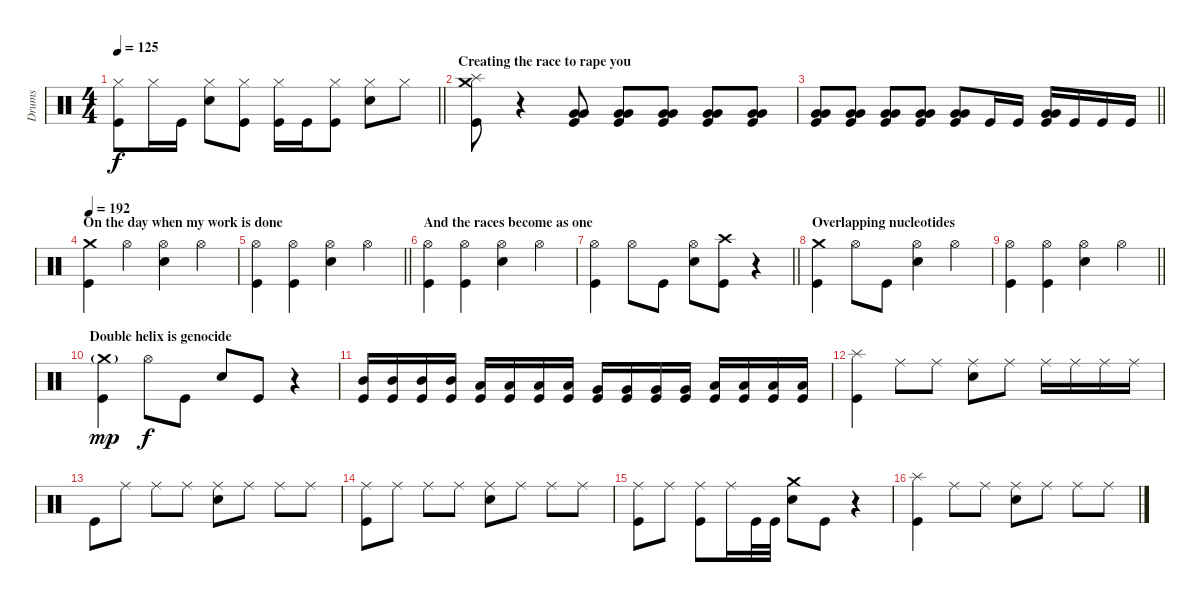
\track ("Drums" "Drums") {instrument percussion}
\staff {score}
\articulation defaults
\ts (4 4)
\tempo 125
\clef neutral
\barLineRight lightlight
\ks c
("Hi-Hat (closed)" "Kick (hit)").8{dy f} "Hi-Hat (closed)".16 "Kick (hit)".16 ("Hi-Hat (closed)" "Snare (hit) 2").8 ("Hi-Hat (closed)" "Kick (hit)").8 ("Hi-Hat (closed)" "Kick (hit)").16 "Kick (hit)".16 ("Hi-Hat (closed)" "Kick (hit)").8 ("Hi-Hat (closed)" "Snare (hit) 2").8 "Hi-Hat (closed)".8 |
\section ("" "Creating the race to rape you ")
("Splash (hit)" "Crash medium (hit)" "Kick (hit)").8 r.4 ("Very Low Tom (hit)" "Very Low Tom (hit)" "Kick (hit)").8 ("Very Low Tom (hit)" "Very Low Tom (hit)" "Kick (hit)").8 ("Very Low Tom (hit)" "Very Low Tom (hit)" "Kick (hit)").8 ("Very Low Tom (hit)" "Very Low Tom (hit)" "Kick (hit)").8 ("Very Low Tom (hit)" "Very Low Tom (hit)" "Kick (hit)").8 |
\barLineRight lightlight
("Very Low Tom (hit)" "Very Low Tom (hit)" "Kick (hit)").8 ("Very Low Tom (hit)" "Very Low Tom (hit)" "Kick (hit)").8 ("Very Low Tom (hit)" "Very Low Tom (hit)" "Kick (hit)").8 ("Very Low Tom (hit)" "Very Low Tom (hit)" "Kick (hit)").8 ("Very Low Tom (hit)" "Very Low Tom (hit)" "Kick (hit)").8 "Kick (hit)".16 "Kick (hit)".16 ("Very Low Tom (hit)" "Very Low Tom (hit)" "Kick (hit)").16 "Kick (hit)".16 "Kick (hit)".16 "Kick (hit)".16 |
\section ("" "On the day when my work is done ")
\tempo 192
("Crash medium (hit)" "Kick (hit)").4 "Hi-Hat (open)".4 ("Hi-Hat (open)" "Snare (hit) 2").4 "Hi-Hat (open)".4 |
\barLineRight lightlight
("Hi-Hat (open)" "Kick (hit)").4 ("Hi-Hat (open)" "Kick (hit)").4 ("Hi-Hat (open)" "Snare (hit) 2").4 "Hi-Hat (open)".4 |
\section ("" "And the races become as one ")
("Hi-Hat (open)" "Kick (hit)").4 ("Hi-Hat (open)" "Kick (hit)").4 ("Hi-Hat (open)" "Snare (hit) 2").4 "Hi-Hat (open)".4 |
\barLineRight lightlight
("Hi-Hat (open)" "Kick (hit)").4 "Hi-Hat (open)".8 "Kick (hit)".8 ("Hi-Hat (open)" "Snare (hit) 2").8 ("Crash high (hit)" "Kick (hit)").8 r.4 |
\section ("" "Overlapping nucleotides")
("Crash medium (hit)" "Kick (hit)").4 "Hi-Hat (open)".8 "Kick (hit)".8 ("Hi-Hat (open)" "Snare (hit) 2").4 "Hi-Hat (open)".4 |
\barLineRight lightlight
("Hi-Hat (open)" "Kick (hit)").4 ("Hi-Hat (open)" "Kick (hit)").4 ("Hi-Hat (open)" "Snare (hit) 2").4 "Hi-Hat (open)".4 |
\section ("" "Double helix is genocide ")
("Crash medium (hit)"{g} "Kick (hit)").4{dy mp} "Hi-Hat (open)".8{dy f} "Kick (hit)".8 "Snare (hit) 2".8 "Kick (hit)".8 r.4 |
("Mid Tom (hit)" "Kick (hit)").16 ("Mid Tom (hit)" "Kick (hit)").16 ("Mid Tom (hit)" "Kick (hit)").16 ("Mid Tom (hit)" "Kick (hit)").16 ("Low Tom (hit)" "Kick (hit)").16 ("Low Tom (hit)" "Kick (hit)").16 ("Low Tom (hit)" "Kick (hit)").16 ("Low Tom (hit)" "Kick (hit)").16 ("Very Low Tom (hit)" "Kick (hit)").16 ("Very Low Tom (hit)" "Kick (hit)").16 ("Very Low Tom (hit)" "Kick (hit)").16 ("Very Low Tom (hit)" "Kick (hit)").16 ("Low Floor Tom (hit)" "Kick (hit)").16 ("Low Floor Tom (hit)" "Kick (hit)").16 ("Low Floor Tom (hit)" "Kick (hit)").16 ("Low Floor Tom (hit)" "Kick (hit)").16 |
("Splash (hit)" "Kick (hit)").4 "Ride (middle)".8 "Ride (middle)".8 ("Ride (middle)" "Snare (hit) 2").8 "Ride (middle)".8 "Ride (middle)".16 "Ride (middle)".16 "Ride (middle)".16 "Ride (middle)".16 |
"Kick (hit)".8 "Ride (middle)".8 "Ride (middle)".8 "Ride (middle)".8 ("Ride (middle)" "Snare (hit) 2").8 "Ride (middle)".8 "Ride (middle)".8 "Ride (middle)".8 |
("Ride (middle)" "Kick (hit)").8 "Ride (middle)".8 "Ride (middle)".8 "Ride (middle)".8 ("Ride (middle)" "Snare (hit) 2").8 "Ride (middle)".8 "Ride (middle)".8 "Ride (middle)".8 |
("Ride (middle)" "Kick (hit)").8 "Ride (middle)".8 ("Ride (middle)" "Kick (hit)").8 "Ride (middle)".16 "Kick (hit)".32 "Kick (hit)".32 ("Crash medium (hit)" "Snare (hit) 2").8 "Kick (hit)".8 r.4 |
("Splash (hit)" "Kick (hit)").4 "Ride (middle)".8 "Ride (middle)".8 ("Ride (middle)" "Snare (hit) 2").8 "Ride (middle)".8 "Ride (middle)".8 "Ride (middle)".8
